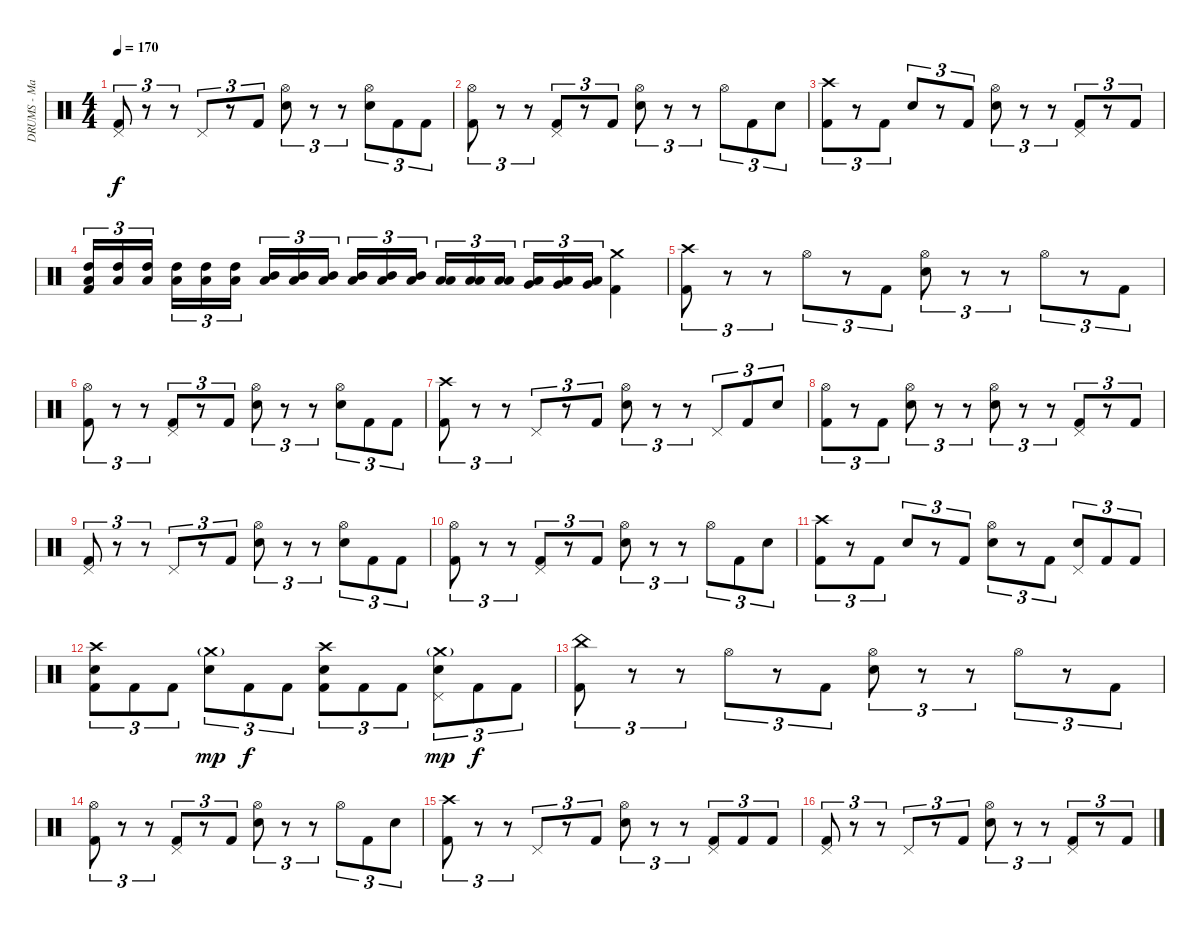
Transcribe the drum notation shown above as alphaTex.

\track ("DRUMS - Mario Duplantier" "DRUMS - Ma") {instrument percussion}
\staff {score}
\articulation defaults
\ts (4 4)
\tempo 170
\clef neutral
\ks c
("Pedal Hi-Hat (hit)" "Kick (hit) 2").8{tu (3 2) dy f} r.8{tu (3 2)} r.8{tu (3 2)} "Pedal Hi-Hat (hit)".8{tu (3 2)} r.8{tu (3 2)} "Kick (hit) 2".8{tu (3 2)} ("Hi-Hat (open)" "Electric Snare (hit)").8{tu (3 2)} r.8{tu (3 2)} r.8{tu (3 2)} ("Hi-Hat (open)" "Electric Snare (hit)").8{tu (3 2)} "Kick (hit) 2".8{tu (3 2)} "Kick (hit) 2".8{tu (3 2)} |
("Hi-Hat (open)" "Kick (hit) 2").8{tu (3 2)} r.8{tu (3 2)} r.8{tu (3 2)} ("Pedal Hi-Hat (hit)" "Kick (hit) 2").8{tu (3 2)} r.8{tu (3 2)} "Kick (hit) 2".8{tu (3 2)} ("Hi-Hat (open)" "Electric Snare (hit)").8{tu (3 2)} r.8{tu (3 2)} r.8{tu (3 2)} "Hi-Hat (open)".8{tu (3 2)} "Kick (hit) 2".8{tu (3 2)} "Electric Snare (hit)".8{tu (3 2)} |
("Crash high (hit)" "Kick (hit) 2").8{tu (3 2)} r.8{tu (3 2)} "Kick (hit) 2".8{tu (3 2)} "Electric Snare (hit)".8{tu (3 2)} r.8{tu (3 2)} "Kick (hit) 2".8{tu (3 2)} ("Hi-Hat (open)" "Electric Snare (hit)").8{tu (3 2)} r.8{tu (3 2)} r.8{tu (3 2)} ("Pedal Hi-Hat (hit)" "Kick (hit) 2").8{tu (3 2)} r.8{tu (3 2)} "Kick (hit) 2".8{tu (3 2)} |
("High Tom (hit)" "Low Floor Tom (hit)" "Kick (hit) 2").16{tu (3 2)} ("High Tom (hit)" "Low Floor Tom (hit)").16{tu (3 2)} ("High Tom (hit)" "Low Floor Tom (hit)").16{tu (3 2) beam splitsecondary} ("High Tom (hit)" "Low Floor Tom (hit)").16{tu (3 2)} ("High Tom (hit)" "Low Floor Tom (hit)").16{tu (3 2)} ("High Tom (hit)" "Low Floor Tom (hit)").16{tu (3 2)} ("Mid Tom (hit)" "Low Floor Tom (hit)").16{tu (3 2)} ("Mid Tom (hit)" "Low Floor Tom (hit)").16{tu (3 2)} ("Mid Tom (hit)" "Low Floor Tom (hit)").16{tu (3 2) beam splitsecondary} ("Mid Tom (hit)" "Low Floor Tom (hit)").16{tu (3 2)} ("Mid Tom (hit)" "Low Floor Tom (hit)").16{tu (3 2)} ("Mid Tom (hit)" "Low Floor Tom (hit)").16{tu (3 2)} ("Low Tom (hit)" "Low Floor Tom (hit)").16{tu (3 2)} ("Low Tom (hit)" "Low Floor Tom (hit)").16{tu (3 2)} ("Low Tom (hit)" "Low Floor Tom (hit)").16{tu (3 2) beam splitsecondary} ("Very Low Tom (hit)" "Low Floor Tom (hit)").16{tu (3 2)} ("Very Low Tom (hit)" "Low Floor Tom (hit)").16{tu (3 2)} ("Very Low Tom (hit)" "Low Floor Tom (hit)").16{tu (3 2)} ("Crash medium (hit)" "Kick (hit) 2").4 |
("Crash high (hit)" "Kick (hit) 2").8{tu (3 2)} r.8{tu (3 2)} r.8{tu (3 2)} "Hi-Hat (open)".8{tu (3 2)} r.8{tu (3 2)} "Kick (hit) 2".8{tu (3 2)} ("Hi-Hat (open)" "Electric Snare (hit)").8{tu (3 2)} r.8{tu (3 2)} r.8{tu (3 2)} "Hi-Hat (open)".8{tu (3 2)} r.8{tu (3 2)} "Kick (hit) 2".8{tu (3 2)} |
("Hi-Hat (open)" "Kick (hit) 2").8{tu (3 2)} r.8{tu (3 2)} r.8{tu (3 2)} ("Pedal Hi-Hat (hit)" "Kick (hit) 2").8{tu (3 2)} r.8{tu (3 2)} "Kick (hit) 2".8{tu (3 2)} ("Hi-Hat (open)" "Electric Snare (hit)").8{tu (3 2)} r.8{tu (3 2)} r.8{tu (3 2)} ("Hi-Hat (open)" "Electric Snare (hit)").8{tu (3 2)} "Kick (hit) 2".8{tu (3 2)} "Kick (hit) 2".8{tu (3 2)} |
("Crash high (hit)" "Kick (hit) 2").8{tu (3 2)} r.8{tu (3 2)} r.8{tu (3 2)} "Pedal Hi-Hat (hit)".8{tu (3 2)} r.8{tu (3 2)} "Kick (hit) 2".8{tu (3 2)} ("Hi-Hat (open)" "Electric Snare (hit)").8{tu (3 2)} r.8{tu (3 2)} r.8{tu (3 2)} "Pedal Hi-Hat (hit)".8{tu (3 2)} "Kick (hit) 2".8{tu (3 2)} "Electric Snare (hit)".8{tu (3 2)} |
("Hi-Hat (open)" "Kick (hit) 2").8{tu (3 2)} r.8{tu (3 2)} "Kick (hit) 2".8{tu (3 2)} ("Hi-Hat (open)" "Electric Snare (hit)").8{tu (3 2)} r.8{tu (3 2)} r.8{tu (3 2)} ("Hi-Hat (open)" "Electric Snare (hit)").8{tu (3 2)} r.8{tu (3 2)} r.8{tu (3 2)} ("Pedal Hi-Hat (hit)" "Kick (hit) 2").8{tu (3 2)} r.8{tu (3 2)} "Kick (hit) 2".8{tu (3 2)} |
("Pedal Hi-Hat (hit)" "Kick (hit) 2").8{tu (3 2)} r.8{tu (3 2)} r.8{tu (3 2)} "Pedal Hi-Hat (hit)".8{tu (3 2)} r.8{tu (3 2)} "Kick (hit) 2".8{tu (3 2)} ("Hi-Hat (open)" "Electric Snare (hit)").8{tu (3 2)} r.8{tu (3 2)} r.8{tu (3 2)} ("Hi-Hat (open)" "Electric Snare (hit)").8{tu (3 2)} "Kick (hit) 2".8{tu (3 2)} "Kick (hit) 2".8{tu (3 2)} |
("Hi-Hat (open)" "Kick (hit) 2").8{tu (3 2)} r.8{tu (3 2)} r.8{tu (3 2)} ("Pedal Hi-Hat (hit)" "Kick (hit) 2").8{tu (3 2)} r.8{tu (3 2)} "Kick (hit) 2".8{tu (3 2)} ("Hi-Hat (open)" "Electric Snare (hit)").8{tu (3 2)} r.8{tu (3 2)} r.8{tu (3 2)} "Hi-Hat (open)".8{tu (3 2)} "Kick (hit) 2".8{tu (3 2)} "Electric Snare (hit)".8{tu (3 2)} |
("Crash high (hit)" "Kick (hit) 2").8{tu (3 2)} r.8{tu (3 2)} "Kick (hit) 2".8{tu (3 2)} "Electric Snare (hit)".8{tu (3 2)} r.8{tu (3 2)} "Kick (hit) 2".8{tu (3 2)} ("Hi-Hat (open)" "Electric Snare (hit)").8{tu (3 2)} r.8{tu (3 2)} "Kick (hit) 2".8{tu (3 2)} ("Pedal Hi-Hat (hit)" "Electric Snare (hit)").8{tu (3 2)} "Kick (hit) 2".8{tu (3 2)} "Kick (hit) 2".8{tu (3 2)} |
("Crash high (hit)" "Electric Snare (hit)" "Kick (hit) 2").8{tu (3 2)} "Kick (hit) 2".8{tu (3 2)} "Kick (hit) 2".8{tu (3 2)} ("Crash medium (hit)"{g} "Electric Snare (hit)").8{tu (3 2) dy mp} "Kick (hit) 2".8{tu (3 2) dy f} "Kick (hit) 2".8{tu (3 2)} ("Crash high (hit)" "Electric Snare (hit)" "Kick (hit) 2").8{tu (3 2)} "Kick (hit) 2".8{tu (3 2)} "Kick (hit) 2".8{tu (3 2)} ("Crash medium (hit)"{g} "Pedal Hi-Hat (hit)" "Electric Snare (hit)").8{tu (3 2) dy mp} "Kick (hit) 2".8{tu (3 2) dy f} "Kick (hit) 2".8{tu (3 2)} |
("China (hit)" "Kick (hit) 2").8{tu (3 2)} r.8{tu (3 2)} r.8{tu (3 2)} "Hi-Hat (open)".8{tu (3 2)} r.8{tu (3 2)} "Kick (hit) 2".8{tu (3 2)} ("Hi-Hat (open)" "Electric Snare (hit)").8{tu (3 2)} r.8{tu (3 2)} r.8{tu (3 2)} "Hi-Hat (open)".8{tu (3 2)} r.8{tu (3 2)} "Kick (hit) 2".8{tu (3 2)} |
("Hi-Hat (open)" "Kick (hit) 2").8{tu (3 2)} r.8{tu (3 2)} r.8{tu (3 2)} ("Pedal Hi-Hat (hit)" "Kick (hit) 2").8{tu (3 2)} r.8{tu (3 2)} "Kick (hit) 2".8{tu (3 2)} ("Hi-Hat (open)" "Electric Snare (hit)").8{tu (3 2)} r.8{tu (3 2)} r.8{tu (3 2)} "Hi-Hat (open)".8{tu (3 2)} "Kick (hit) 2".8{tu (3 2)} "Electric Snare (hit)".8{tu (3 2)} |
("Crash high (hit)" "Kick (hit) 2").8{tu (3 2)} r.8{tu (3 2)} r.8{tu (3 2)} "Pedal Hi-Hat (hit)".8{tu (3 2)} r.8{tu (3 2)} "Kick (hit) 2".8{tu (3 2)} ("Hi-Hat (open)" "Electric Snare (hit)").8{tu (3 2)} r.8{tu (3 2)} r.8{tu (3 2)} ("Pedal Hi-Hat (hit)" "Kick (hit) 2").8{tu (3 2)} "Kick (hit) 2".8{tu (3 2)} "Kick (hit) 2".8{tu (3 2)} |
("Pedal Hi-Hat (hit)" "Kick (hit) 2").8{tu (3 2)} r.8{tu (3 2)} r.8{tu (3 2)} "Pedal Hi-Hat (hit)".8{tu (3 2)} r.8{tu (3 2)} "Kick (hit) 2".8{tu (3 2)} ("Hi-Hat (open)" "Electric Snare (hit)").8{tu (3 2)} r.8{tu (3 2)} r.8{tu (3 2)} ("Pedal Hi-Hat (hit)" "Kick (hit) 2").8{tu (3 2)} r.8{tu (3 2)} "Kick (hit) 2".8{tu (3 2)}
